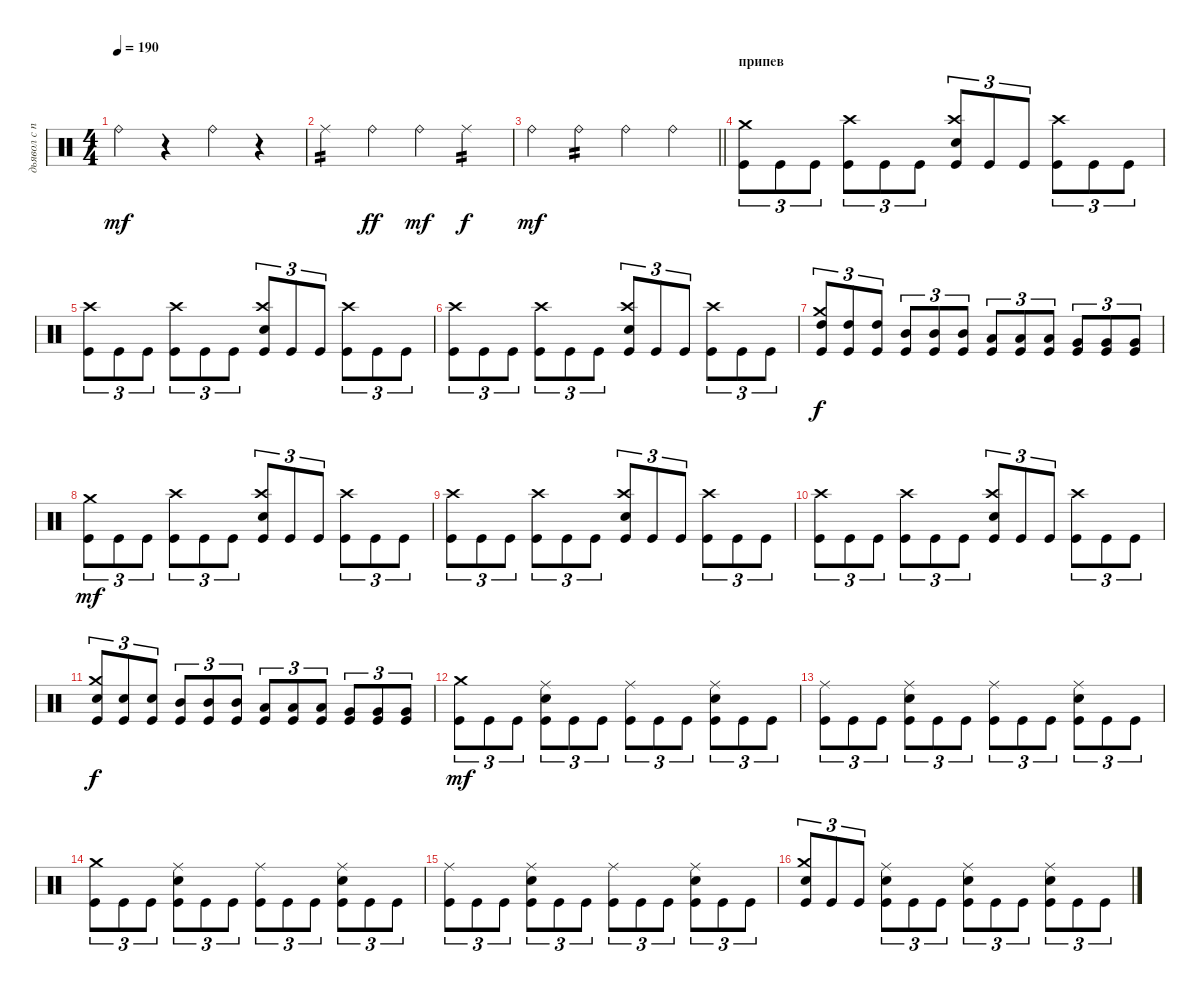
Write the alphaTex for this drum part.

\track ("дьявол с палками" "дьявол с п") {instrument percussion}
\staff {score}
\articulation defaults
\ts (4 4)
\tempo 190
\clef neutral
\ks c "Ride (bell)".4{dy mf}
r.4 "Ride (bell)".4 r.4 |
"Ride (middle)".4{tp 2} "Ride (bell)".4{dy ff} "Ride (bell)".4{dy mf} "Ride (middle)".4{tp 2 dy f} |
\barLineRight lightlight "Ride (bell)".4{dy mf} "Ride (bell)".4{tp 2} "Ride (bell)".4 "Ride (bell)".4
|
\section ("" "припев")
("Kick (hit)" "Crash medium (hit)").8{tu (3 2)} "Kick (hit)".8{tu (3 2)} "Kick (hit)".8{tu (3 2)} ("Kick (hit)" "Crash high (hit)").8{tu (3 2)} "Kick (hit)".8{tu (3 2)} "Kick (hit)".8{tu (3 2)} ("Kick (hit)" "Snare (hit) 2" "Crash high (hit)").8{tu (3 2)} "Kick (hit)".8{tu (3 2)} "Kick (hit)".8{tu (3 2)} ("Kick (hit)" "Crash high (hit)").8{tu (3 2)} "Kick (hit)".8{tu (3 2)} "Kick (hit)".8{tu (3 2)} |
("Kick (hit)" "Crash high (hit)").8{tu (3 2)} "Kick (hit)".8{tu (3 2)} "Kick (hit)".8{tu (3 2)} ("Kick (hit)" "Crash high (hit)").8{tu (3 2)} "Kick (hit)".8{tu (3 2)} "Kick (hit)".8{tu (3 2)} ("Kick (hit)" "Snare (hit) 2" "Crash high (hit)").8{tu (3 2)} "Kick (hit)".8{tu (3 2)} "Kick (hit)".8{tu (3 2)} ("Kick (hit)" "Crash high (hit)").8{tu (3 2)} "Kick (hit)".8{tu (3 2)} "Kick (hit)".8{tu (3 2)} |
("Kick (hit)" "Crash high (hit)").8{tu (3 2)} "Kick (hit)".8{tu (3 2)} "Kick (hit)".8{tu (3 2)} ("Kick (hit)" "Crash high (hit)").8{tu (3 2)} "Kick (hit)".8{tu (3 2)} "Kick (hit)".8{tu (3 2)} ("Kick (hit)" "Snare (hit) 2" "Crash high (hit)").8{tu (3 2)} "Kick (hit)".8{tu (3 2)} "Kick (hit)".8{tu (3 2)} ("Kick (hit)" "Crash high (hit)").8{tu (3 2)} "Kick (hit)".8{tu (3 2)} "Kick (hit)".8{tu (3 2)} |
("Kick (hit)" "Crash medium (hit)" "High Tom (hit)").8{tu (3 2) dy f} ("Kick (hit)" "High Tom (hit)").8{tu (3 2)} ("Kick (hit)" "High Tom (hit)").8{tu (3 2)} ("Kick (hit)" "Mid Tom (hit)").8{tu (3 2)} ("Kick (hit)" "Mid Tom (hit)").8{tu (3 2)} ("Kick (hit)" "Mid Tom (hit)").8{tu (3 2)} ("Kick (hit)" "Low Tom (hit)").8{tu (3 2)} ("Kick (hit)" "Low Tom (hit)").8{tu (3 2)} ("Kick (hit)" "Low Tom (hit)").8{tu (3 2)} ("Kick (hit)" "Very Low Tom (hit)").8{tu (3 2)} ("Kick (hit)" "Very Low Tom (hit)").8{tu (3 2)} ("Kick (hit)" "Very Low Tom (hit)").8{tu (3 2)} |
("Kick (hit)" "Crash medium (hit)").8{tu (3 2) dy mf} "Kick (hit)".8{tu (3 2)} "Kick (hit)".8{tu (3 2)} ("Kick (hit)" "Crash high (hit)").8{tu (3 2)} "Kick (hit)".8{tu (3 2)} "Kick (hit)".8{tu (3 2)} ("Kick (hit)" "Snare (hit) 2" "Crash high (hit)").8{tu (3 2)} "Kick (hit)".8{tu (3 2)} "Kick (hit)".8{tu (3 2)} ("Kick (hit)" "Crash high (hit)").8{tu (3 2)} "Kick (hit)".8{tu (3 2)} "Kick (hit)".8{tu (3 2)} |
("Kick (hit)" "Crash high (hit)").8{tu (3 2)} "Kick (hit)".8{tu (3 2)} "Kick (hit)".8{tu (3 2)} ("Kick (hit)" "Crash high (hit)").8{tu (3 2)} "Kick (hit)".8{tu (3 2)} "Kick (hit)".8{tu (3 2)} ("Kick (hit)" "Snare (hit) 2" "Crash high (hit)").8{tu (3 2)} "Kick (hit)".8{tu (3 2)} "Kick (hit)".8{tu (3 2)} ("Kick (hit)" "Crash high (hit)").8{tu (3 2)} "Kick (hit)".8{tu (3 2)} "Kick (hit)".8{tu (3 2)} |
("Kick (hit)" "Crash high (hit)").8{tu (3 2)} "Kick (hit)".8{tu (3 2)} "Kick (hit)".8{tu (3 2)} ("Kick (hit)" "Crash high (hit)").8{tu (3 2)} "Kick (hit)".8{tu (3 2)} "Kick (hit)".8{tu (3 2)} ("Kick (hit)" "Snare (hit) 2" "Crash high (hit)").8{tu (3 2)} "Kick (hit)".8{tu (3 2)} "Kick (hit)".8{tu (3 2)} ("Kick (hit)" "Crash high (hit)").8{tu (3 2)} "Kick (hit)".8{tu (3 2)} "Kick (hit)".8{tu (3 2)} |
("Kick (hit)" "Crash medium (hit)" "Snare (hit) 2").8{tu (3 2) dy f} ("Kick (hit)" "Snare (hit) 2").8{tu (3 2)} ("Kick (hit)" "Snare (hit) 2").8{tu (3 2)} ("Kick (hit)" "Mid Tom (hit)").8{tu (3 2)} ("Kick (hit)" "Mid Tom (hit)").8{tu (3 2)} ("Kick (hit)" "Mid Tom (hit)").8{tu (3 2)} ("Kick (hit)" "Low Tom (hit)").8{tu (3 2)} ("Kick (hit)" "Low Tom (hit)").8{tu (3 2)} ("Kick (hit)" "Low Tom (hit)").8{tu (3 2)} ("Kick (hit)" "Very Low Tom (hit)").8{tu (3 2)} ("Kick (hit)" "Very Low Tom (hit)").8{tu (3 2)} ("Kick (hit)" "Very Low Tom (hit)").8{tu (3 2)} |
("Kick (hit)" "Crash medium (hit)").8{tu (3 2) dy mf} "Kick (hit)".8{tu (3 2)} "Kick (hit)".8{tu (3 2)} ("Kick (hit)" "Snare (hit) 2" "Ride (middle)").8{tu (3 2)} "Kick (hit)".8{tu (3 2)} "Kick (hit)".8{tu (3 2)} ("Kick (hit)" "Ride (middle)").8{tu (3 2)} "Kick (hit)".8{tu (3 2)} "Kick (hit)".8{tu (3 2)} ("Kick (hit)" "Snare (hit) 2" "Ride (middle)").8{tu (3 2)} "Kick (hit)".8{tu (3 2)} "Kick (hit)".8{tu (3 2)} |
("Kick (hit)" "Ride (middle)").8{tu (3 2)} "Kick (hit)".8{tu (3 2)} "Kick (hit)".8{tu (3 2)} ("Kick (hit)" "Snare (hit) 2" "Ride (middle)").8{tu (3 2)} "Kick (hit)".8{tu (3 2)} "Kick (hit)".8{tu (3 2)} ("Kick (hit)" "Ride (middle)").8{tu (3 2)} "Kick (hit)".8{tu (3 2)} "Kick (hit)".8{tu (3 2)} ("Kick (hit)" "Snare (hit) 2" "Ride (middle)").8{tu (3 2)} "Kick (hit)".8{tu (3 2)} "Kick (hit)".8{tu (3 2)} |
("Kick (hit)" "Crash medium (hit)").8{tu (3 2)} "Kick (hit)".8{tu (3 2)} "Kick (hit)".8{tu (3 2)} ("Kick (hit)" "Snare (hit) 2" "Ride (middle)").8{tu (3 2)} "Kick (hit)".8{tu (3 2)} "Kick (hit)".8{tu (3 2)} ("Kick (hit)" "Ride (middle)").8{tu (3 2)} "Kick (hit)".8{tu (3 2)} "Kick (hit)".8{tu (3 2)} ("Kick (hit)" "Snare (hit) 2" "Ride (middle)").8{tu (3 2)} "Kick (hit)".8{tu (3 2)} "Kick (hit)".8{tu (3 2)} |
("Kick (hit)" "Ride (middle)").8{tu (3 2)} "Kick (hit)".8{tu (3 2)} "Kick (hit)".8{tu (3 2)} ("Kick (hit)" "Snare (hit) 2" "Ride (middle)").8{tu (3 2)} "Kick (hit)".8{tu (3 2)} "Kick (hit)".8{tu (3 2)} ("Kick (hit)" "Ride (middle)").8{tu (3 2)} "Kick (hit)".8{tu (3 2)} "Kick (hit)".8{tu (3 2)} ("Kick (hit)" "Snare (hit) 2" "Ride (middle)").8{tu (3 2)} "Kick (hit)".8{tu (3 2)} "Kick (hit)".8{tu (3 2)} |
("Kick (hit)" "Crash medium (hit)" "Snare (hit) 2").8{tu (3 2)} "Kick (hit)".8{tu (3 2)} "Kick (hit)".8{tu (3 2)} ("Kick (hit)" "Snare (hit) 2" "Ride (middle)").8{tu (3 2)} "Kick (hit)".8{tu (3 2)} "Kick (hit)".8{tu (3 2)} ("Kick (hit)" "Ride (middle)" "Snare (hit) 2").8{tu (3 2)} "Kick (hit)".8{tu (3 2)} "Kick (hit)".8{tu (3 2)} ("Kick (hit)" "Snare (hit) 2" "Ride (middle)").8{tu (3 2)} "Kick (hit)".8{tu (3 2)} "Kick (hit)".8{tu (3 2)}
